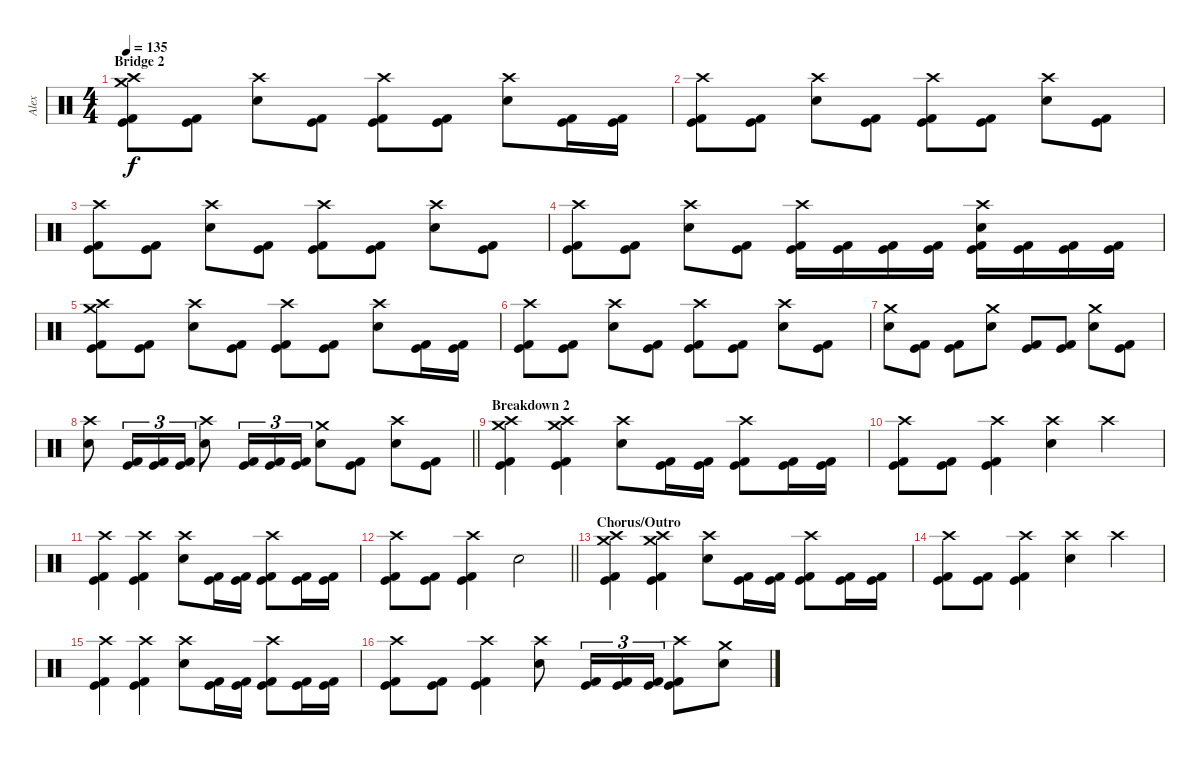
\track ("Alex" "Alex") {instrument percussion}
\staff {score}
\articulation defaults
\ts (4 4)
\section ("" "Bridge 2")
\tempo 135
\clef neutral
\ks c
("Crash medium (hit)" "Crash high (hit)" "Kick (hit) 2" "Kick (hit)").8{dy f} ("Kick (hit) 2" "Kick (hit)").8 ("Crash high (hit)" "Electric Snare (hit)").8 ("Kick (hit) 2" "Kick (hit)").8 ("Crash high (hit)" "Kick (hit) 2" "Kick (hit)").8 ("Kick (hit) 2" "Kick (hit)").8 ("Crash high (hit)" "Electric Snare (hit)").8 ("Kick (hit) 2" "Kick (hit)").16 ("Kick (hit) 2" "Kick (hit)").16 |
("Crash high (hit)" "Kick (hit) 2" "Kick (hit)").8 ("Kick (hit) 2" "Kick (hit)").8 ("Crash high (hit)" "Electric Snare (hit)").8 ("Kick (hit) 2" "Kick (hit)").8 ("Crash high (hit)" "Kick (hit) 2" "Kick (hit)").8 ("Kick (hit) 2" "Kick (hit)").8 ("Crash high (hit)" "Electric Snare (hit)").8 ("Kick (hit) 2" "Kick (hit)").8 |
("Crash high (hit)" "Kick (hit) 2" "Kick (hit)").8 ("Kick (hit) 2" "Kick (hit)").8 ("Crash high (hit)" "Electric Snare (hit)").8 ("Kick (hit) 2" "Kick (hit)").8 ("Crash high (hit)" "Kick (hit) 2" "Kick (hit)").8 ("Kick (hit) 2" "Kick (hit)").8 ("Crash high (hit)" "Electric Snare (hit)").8 ("Kick (hit) 2" "Kick (hit)").8 |
("Crash high (hit)" "Kick (hit) 2" "Kick (hit)").8 ("Kick (hit) 2" "Kick (hit)").8 ("Crash high (hit)" "Electric Snare (hit)").8 ("Kick (hit) 2" "Kick (hit)").8 ("Crash high (hit)" "Kick (hit) 2" "Kick (hit)").16 ("Kick (hit) 2" "Kick (hit)").16 ("Kick (hit) 2" "Kick (hit)").16 ("Kick (hit) 2" "Kick (hit)").16 ("Crash high (hit)" "Electric Snare (hit)" "Kick (hit) 2" "Kick (hit)").16 ("Kick (hit) 2" "Kick (hit)").16 ("Kick (hit) 2" "Kick (hit)").16 ("Kick (hit) 2" "Kick (hit)").16 |
("Crash medium (hit)" "Crash high (hit)" "Kick (hit) 2" "Kick (hit)").8 ("Kick (hit) 2" "Kick (hit)").8 ("Crash high (hit)" "Electric Snare (hit)").8 ("Kick (hit) 2" "Kick (hit)").8 ("Crash high (hit)" "Kick (hit) 2" "Kick (hit)").8 ("Kick (hit) 2" "Kick (hit)").8 ("Crash high (hit)" "Electric Snare (hit)").8 ("Kick (hit) 2" "Kick (hit)").16 ("Kick (hit) 2" "Kick (hit)").16 |
("Crash high (hit)" "Kick (hit) 2" "Kick (hit)").8 ("Kick (hit) 2" "Kick (hit)").8 ("Crash high (hit)" "Electric Snare (hit)").8 ("Kick (hit) 2" "Kick (hit)").8 ("Crash high (hit)" "Kick (hit) 2" "Kick (hit)").8 ("Kick (hit) 2" "Kick (hit)").8 ("Crash high (hit)" "Electric Snare (hit)").8 ("Kick (hit) 2" "Kick (hit)").8 |
("Crash medium (hit)" "Electric Snare (hit)").8 ("Kick (hit) 2" "Kick (hit)").8 ("Kick (hit) 2" "Kick (hit)").8 ("Crash medium (hit)" "Electric Snare (hit)").8 ("Kick (hit) 2" "Kick (hit)").8 ("Kick (hit) 2" "Kick (hit)").8 ("Crash medium (hit)" "Electric Snare (hit)").8 ("Kick (hit) 2" "Kick (hit)").8 |
\barLineRight lightlight
("Crash high (hit)" "Electric Snare (hit)").8 ("Kick (hit) 2" "Kick (hit)").16{tu (3 2)} ("Kick (hit) 2" "Kick (hit)").16{tu (3 2)} ("Kick (hit) 2" "Kick (hit)").16{tu (3 2)} ("Crash high (hit)" "Electric Snare (hit)").8 ("Kick (hit) 2" "Kick (hit)").16{tu (3 2)} ("Kick (hit) 2" "Kick (hit)").16{tu (3 2)} ("Kick (hit) 2" "Kick (hit)").16{tu (3 2)} ("Crash medium (hit)" "Electric Snare (hit)").8 ("Kick (hit) 2" "Kick (hit)").8 ("Crash high (hit)" "Electric Snare (hit)").8 ("Kick (hit) 2" "Kick (hit)").8 |
\section ("" "Breakdown 2")
("Crash medium (hit)" "Crash high (hit)" "Kick (hit) 2" "Kick (hit)").4 ("Crash medium (hit)" "Crash high (hit)" "Kick (hit) 2" "Kick (hit)").4 ("Crash high (hit)" "Electric Snare (hit)").8 ("Kick (hit) 2" "Kick (hit)").16 ("Kick (hit) 2" "Kick (hit)").16 ("Crash high (hit)" "Kick (hit) 2" "Kick (hit)").8 ("Kick (hit) 2" "Kick (hit)").16 ("Kick (hit) 2" "Kick (hit)").16 |
("Crash high (hit)" "Kick (hit) 2" "Kick (hit)").8 ("Kick (hit) 2" "Kick (hit)").8 ("Crash high (hit)" "Kick (hit) 2" "Kick (hit)").4 ("Crash high (hit)" "Electric Snare (hit)").4 "Crash high (hit)".4 |
("Crash high (hit)" "Kick (hit) 2" "Kick (hit)").4 ("Crash high (hit)" "Kick (hit) 2" "Kick (hit)").4 ("Crash high (hit)" "Electric Snare (hit)").8 ("Kick (hit) 2" "Kick (hit)").16 ("Kick (hit) 2" "Kick (hit)").16 ("Crash high (hit)" "Kick (hit) 2" "Kick (hit)").8 ("Kick (hit) 2" "Kick (hit)").16 ("Kick (hit) 2" "Kick (hit)").16 |
\barLineRight lightlight
("Crash high (hit)" "Kick (hit) 2" "Kick (hit)").8 ("Kick (hit) 2" "Kick (hit)").8 ("Crash high (hit)" "Kick (hit) 2" "Kick (hit)").4 "Electric Snare (hit)".2 |
\section ("" "Chorus/Outro")
("Crash medium (hit)" "Crash high (hit)" "Kick (hit) 2" "Kick (hit)").4 ("Crash medium (hit)" "Crash high (hit)" "Kick (hit) 2" "Kick (hit)").4 ("Crash high (hit)" "Electric Snare (hit)").8 ("Kick (hit) 2" "Kick (hit)").16 ("Kick (hit) 2" "Kick (hit)").16 ("Crash high (hit)" "Kick (hit) 2" "Kick (hit)").8 ("Kick (hit) 2" "Kick (hit)").16 ("Kick (hit) 2" "Kick (hit)").16 |
("Crash high (hit)" "Kick (hit) 2" "Kick (hit)").8 ("Kick (hit) 2" "Kick (hit)").8 ("Crash high (hit)" "Kick (hit) 2" "Kick (hit)").4 ("Crash high (hit)" "Electric Snare (hit)").4 "Crash high (hit)".4 |
("Crash high (hit)" "Kick (hit) 2" "Kick (hit)").4 ("Crash high (hit)" "Kick (hit) 2" "Kick (hit)").4 ("Crash high (hit)" "Electric Snare (hit)").8 ("Kick (hit) 2" "Kick (hit)").16 ("Kick (hit) 2" "Kick (hit)").16 ("Crash high (hit)" "Kick (hit) 2" "Kick (hit)").8 ("Kick (hit) 2" "Kick (hit)").16 ("Kick (hit) 2" "Kick (hit)").16 |
("Crash high (hit)" "Kick (hit) 2" "Kick (hit)").8 ("Kick (hit) 2" "Kick (hit)").8 ("Crash high (hit)" "Kick (hit) 2" "Kick (hit)").4 ("Crash high (hit)" "Electric Snare (hit)").8 ("Kick (hit) 2" "Kick (hit)").16{tu (3 2)} ("Kick (hit) 2" "Kick (hit)").16{tu (3 2)} ("Kick (hit) 2" "Kick (hit)").16{tu (3 2)} ("Crash high (hit)" "Kick (hit) 2" "Kick (hit)").8 ("Crash medium (hit)" "Electric Snare (hit)").8
